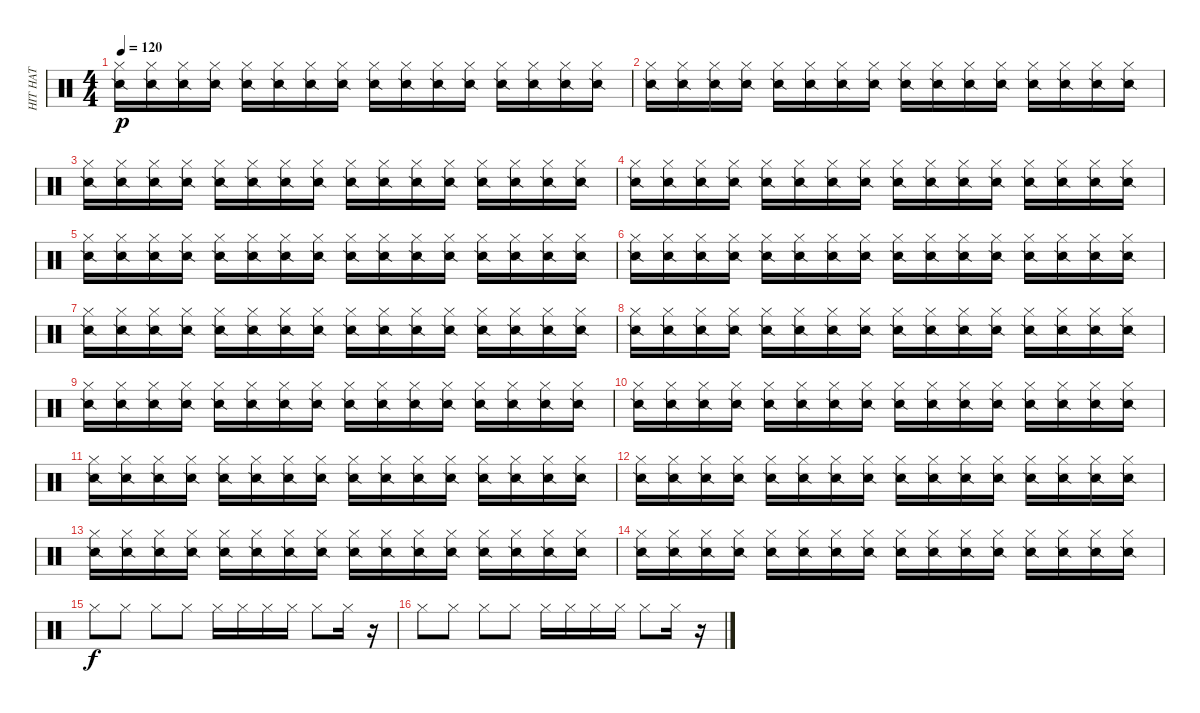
\track ("HIT HAT" "HIT HAT") {instrument percussion}
\staff {score}
\articulation defaults
\ts (4 4)
\tempo 120
\clef neutral
\ks c
("Hi-Hat (closed)" "Snare (side stick) 2").16{dy p} ("Hi-Hat (closed)" "Snare (side stick) 2").16 ("Hi-Hat (closed)" "Snare (side stick) 2").16 ("Hi-Hat (closed)" "Snare (side stick) 2").16 ("Hi-Hat (closed)" "Snare (side stick) 2").16 ("Hi-Hat (closed)" "Snare (side stick) 2").16 ("Hi-Hat (closed)" "Snare (side stick) 2").16 ("Hi-Hat (closed)" "Snare (side stick) 2").16 ("Hi-Hat (closed)" "Snare (side stick) 2").16 ("Hi-Hat (closed)" "Snare (side stick) 2").16 ("Hi-Hat (closed)" "Snare (side stick) 2").16 ("Hi-Hat (closed)" "Snare (side stick) 2").16 ("Hi-Hat (closed)" "Snare (side stick) 2").16 ("Hi-Hat (closed)" "Snare (side stick) 2").16 ("Hi-Hat (closed)" "Snare (side stick) 2").16 ("Hi-Hat (closed)" "Snare (side stick) 2").16 |
("Hi-Hat (closed)" "Snare (side stick) 2").16 ("Hi-Hat (closed)" "Snare (side stick) 2").16 ("Hi-Hat (closed)" "Snare (side stick) 2").16 ("Hi-Hat (closed)" "Snare (side stick) 2").16 ("Hi-Hat (closed)" "Snare (side stick) 2").16 ("Hi-Hat (closed)" "Snare (side stick) 2").16 ("Hi-Hat (closed)" "Snare (side stick) 2").16 ("Hi-Hat (closed)" "Snare (side stick) 2").16 ("Hi-Hat (closed)" "Snare (side stick) 2").16 ("Hi-Hat (closed)" "Snare (side stick) 2").16 ("Hi-Hat (closed)" "Snare (side stick) 2").16 ("Hi-Hat (closed)" "Snare (side stick) 2").16 ("Hi-Hat (closed)" "Snare (side stick) 2").16 ("Hi-Hat (closed)" "Snare (side stick) 2").16 ("Hi-Hat (closed)" "Snare (side stick) 2").16 ("Hi-Hat (closed)" "Snare (side stick) 2").16 |
("Hi-Hat (closed)" "Snare (side stick) 2").16 ("Hi-Hat (closed)" "Snare (side stick) 2").16 ("Hi-Hat (closed)" "Snare (side stick) 2").16 ("Hi-Hat (closed)" "Snare (side stick) 2").16 ("Hi-Hat (closed)" "Snare (side stick) 2").16 ("Hi-Hat (closed)" "Snare (side stick) 2").16 ("Hi-Hat (closed)" "Snare (side stick) 2").16 ("Hi-Hat (closed)" "Snare (side stick) 2").16 ("Hi-Hat (closed)" "Snare (side stick) 2").16 ("Hi-Hat (closed)" "Snare (side stick) 2").16 ("Hi-Hat (closed)" "Snare (side stick) 2").16 ("Hi-Hat (closed)" "Snare (side stick) 2").16 ("Hi-Hat (closed)" "Snare (side stick) 2").16 ("Hi-Hat (closed)" "Snare (side stick) 2").16 ("Hi-Hat (closed)" "Snare (side stick) 2").16 ("Hi-Hat (closed)" "Snare (side stick) 2").16 |
("Hi-Hat (closed)" "Snare (side stick) 2").16 ("Hi-Hat (closed)" "Snare (side stick) 2").16 ("Hi-Hat (closed)" "Snare (side stick) 2").16 ("Hi-Hat (closed)" "Snare (side stick) 2").16 ("Hi-Hat (closed)" "Snare (side stick) 2").16 ("Hi-Hat (closed)" "Snare (side stick) 2").16 ("Hi-Hat (closed)" "Snare (side stick) 2").16 ("Hi-Hat (closed)" "Snare (side stick) 2").16 ("Hi-Hat (closed)" "Snare (side stick) 2").16 ("Hi-Hat (closed)" "Snare (side stick) 2").16 ("Hi-Hat (closed)" "Snare (side stick) 2").16 ("Hi-Hat (closed)" "Snare (side stick) 2").16 ("Hi-Hat (closed)" "Snare (side stick) 2").16 ("Hi-Hat (closed)" "Snare (side stick) 2").16 ("Hi-Hat (closed)" "Snare (side stick) 2").16 ("Hi-Hat (closed)" "Snare (side stick) 2").16 |
("Hi-Hat (closed)" "Snare (side stick) 2").16 ("Hi-Hat (closed)" "Snare (side stick) 2").16 ("Hi-Hat (closed)" "Snare (side stick) 2").16 ("Hi-Hat (closed)" "Snare (side stick) 2").16 ("Hi-Hat (closed)" "Snare (side stick) 2").16 ("Hi-Hat (closed)" "Snare (side stick) 2").16 ("Hi-Hat (closed)" "Snare (side stick) 2").16 ("Hi-Hat (closed)" "Snare (side stick) 2").16 ("Hi-Hat (closed)" "Snare (side stick) 2").16 ("Hi-Hat (closed)" "Snare (side stick) 2").16 ("Hi-Hat (closed)" "Snare (side stick) 2").16 ("Hi-Hat (closed)" "Snare (side stick) 2").16 ("Hi-Hat (closed)" "Snare (side stick) 2").16 ("Hi-Hat (closed)" "Snare (side stick) 2").16 ("Hi-Hat (closed)" "Snare (side stick) 2").16 ("Hi-Hat (closed)" "Snare (side stick) 2").16 |
("Hi-Hat (closed)" "Snare (side stick) 2").16 ("Hi-Hat (closed)" "Snare (side stick) 2").16 ("Hi-Hat (closed)" "Snare (side stick) 2").16 ("Hi-Hat (closed)" "Snare (side stick) 2").16 ("Hi-Hat (closed)" "Snare (side stick) 2").16 ("Hi-Hat (closed)" "Snare (side stick) 2").16 ("Hi-Hat (closed)" "Snare (side stick) 2").16 ("Hi-Hat (closed)" "Snare (side stick) 2").16 ("Hi-Hat (closed)" "Snare (side stick) 2").16 ("Hi-Hat (closed)" "Snare (side stick) 2").16 ("Hi-Hat (closed)" "Snare (side stick) 2").16 ("Hi-Hat (closed)" "Snare (side stick) 2").16 ("Hi-Hat (closed)" "Snare (side stick) 2").16 ("Hi-Hat (closed)" "Snare (side stick) 2").16 ("Hi-Hat (closed)" "Snare (side stick) 2").16 ("Hi-Hat (closed)" "Snare (side stick) 2").16 |
("Hi-Hat (closed)" "Snare (side stick) 2").16 ("Hi-Hat (closed)" "Snare (side stick) 2").16 ("Hi-Hat (closed)" "Snare (side stick) 2").16 ("Hi-Hat (closed)" "Snare (side stick) 2").16 ("Hi-Hat (closed)" "Snare (side stick) 2").16 ("Hi-Hat (closed)" "Snare (side stick) 2").16 ("Hi-Hat (closed)" "Snare (side stick) 2").16 ("Hi-Hat (closed)" "Snare (side stick) 2").16 ("Hi-Hat (closed)" "Snare (side stick) 2").16 ("Hi-Hat (closed)" "Snare (side stick) 2").16 ("Hi-Hat (closed)" "Snare (side stick) 2").16 ("Hi-Hat (closed)" "Snare (side stick) 2").16 ("Hi-Hat (closed)" "Snare (side stick) 2").16 ("Hi-Hat (closed)" "Snare (side stick) 2").16 ("Hi-Hat (closed)" "Snare (side stick) 2").16 ("Hi-Hat (closed)" "Snare (side stick) 2").16 |
("Hi-Hat (closed)" "Snare (side stick) 2").16 ("Hi-Hat (closed)" "Snare (side stick) 2").16 ("Hi-Hat (closed)" "Snare (side stick) 2").16 ("Hi-Hat (closed)" "Snare (side stick) 2").16 ("Hi-Hat (closed)" "Snare (side stick) 2").16 ("Hi-Hat (closed)" "Snare (side stick) 2").16 ("Hi-Hat (closed)" "Snare (side stick) 2").16 ("Hi-Hat (closed)" "Snare (side stick) 2").16 ("Hi-Hat (closed)" "Snare (side stick) 2").16 ("Hi-Hat (closed)" "Snare (side stick) 2").16 ("Hi-Hat (closed)" "Snare (side stick) 2").16 ("Hi-Hat (closed)" "Snare (side stick) 2").16 ("Hi-Hat (closed)" "Snare (side stick) 2").16 ("Hi-Hat (closed)" "Snare (side stick) 2").16 ("Hi-Hat (closed)" "Snare (side stick) 2").16 ("Hi-Hat (closed)" "Snare (side stick) 2").16 |
("Hi-Hat (closed)" "Snare (side stick) 2").16 ("Hi-Hat (closed)" "Snare (side stick) 2").16 ("Hi-Hat (closed)" "Snare (side stick) 2").16 ("Hi-Hat (closed)" "Snare (side stick) 2").16 ("Hi-Hat (closed)" "Snare (side stick) 2").16 ("Hi-Hat (closed)" "Snare (side stick) 2").16 ("Hi-Hat (closed)" "Snare (side stick) 2").16 ("Hi-Hat (closed)" "Snare (side stick) 2").16 ("Hi-Hat (closed)" "Snare (side stick) 2").16 ("Hi-Hat (closed)" "Snare (side stick) 2").16 ("Hi-Hat (closed)" "Snare (side stick) 2").16 ("Hi-Hat (closed)" "Snare (side stick) 2").16 ("Hi-Hat (closed)" "Snare (side stick) 2").16 ("Hi-Hat (closed)" "Snare (side stick) 2").16 ("Hi-Hat (closed)" "Snare (side stick) 2").16 ("Hi-Hat (closed)" "Snare (side stick) 2").16 |
("Hi-Hat (closed)" "Snare (side stick) 2").16 ("Hi-Hat (closed)" "Snare (side stick) 2").16 ("Hi-Hat (closed)" "Snare (side stick) 2").16 ("Hi-Hat (closed)" "Snare (side stick) 2").16 ("Hi-Hat (closed)" "Snare (side stick) 2").16 ("Hi-Hat (closed)" "Snare (side stick) 2").16 ("Hi-Hat (closed)" "Snare (side stick) 2").16 ("Hi-Hat (closed)" "Snare (side stick) 2").16 ("Hi-Hat (closed)" "Snare (side stick) 2").16 ("Hi-Hat (closed)" "Snare (side stick) 2").16 ("Hi-Hat (closed)" "Snare (side stick) 2").16 ("Hi-Hat (closed)" "Snare (side stick) 2").16 ("Hi-Hat (closed)" "Snare (side stick) 2").16 ("Hi-Hat (closed)" "Snare (side stick) 2").16 ("Hi-Hat (closed)" "Snare (side stick) 2").16 ("Hi-Hat (closed)" "Snare (side stick) 2").16 |
("Hi-Hat (closed)" "Snare (side stick) 2").16 ("Hi-Hat (closed)" "Snare (side stick) 2").16 ("Hi-Hat (closed)" "Snare (side stick) 2").16 ("Hi-Hat (closed)" "Snare (side stick) 2").16 ("Hi-Hat (closed)" "Snare (side stick) 2").16 ("Hi-Hat (closed)" "Snare (side stick) 2").16 ("Hi-Hat (closed)" "Snare (side stick) 2").16 ("Hi-Hat (closed)" "Snare (side stick) 2").16 ("Hi-Hat (closed)" "Snare (side stick) 2").16 ("Hi-Hat (closed)" "Snare (side stick) 2").16 ("Hi-Hat (closed)" "Snare (side stick) 2").16 ("Hi-Hat (closed)" "Snare (side stick) 2").16 ("Hi-Hat (closed)" "Snare (side stick) 2").16 ("Hi-Hat (closed)" "Snare (side stick) 2").16 ("Hi-Hat (closed)" "Snare (side stick) 2").16 ("Hi-Hat (closed)" "Snare (side stick) 2").16 |
("Hi-Hat (closed)" "Snare (side stick) 2").16 ("Hi-Hat (closed)" "Snare (side stick) 2").16 ("Hi-Hat (closed)" "Snare (side stick) 2").16 ("Hi-Hat (closed)" "Snare (side stick) 2").16 ("Hi-Hat (closed)" "Snare (side stick) 2").16 ("Hi-Hat (closed)" "Snare (side stick) 2").16 ("Hi-Hat (closed)" "Snare (side stick) 2").16 ("Hi-Hat (closed)" "Snare (side stick) 2").16 ("Hi-Hat (closed)" "Snare (side stick) 2").16 ("Hi-Hat (closed)" "Snare (side stick) 2").16 ("Hi-Hat (closed)" "Snare (side stick) 2").16 ("Hi-Hat (closed)" "Snare (side stick) 2").16 ("Hi-Hat (closed)" "Snare (side stick) 2").16 ("Hi-Hat (closed)" "Snare (side stick) 2").16 ("Hi-Hat (closed)" "Snare (side stick) 2").16 ("Hi-Hat (closed)" "Snare (side stick) 2").16 |
("Hi-Hat (closed)" "Snare (side stick) 2").16 ("Hi-Hat (closed)" "Snare (side stick) 2").16 ("Hi-Hat (closed)" "Snare (side stick) 2").16 ("Hi-Hat (closed)" "Snare (side stick) 2").16 ("Hi-Hat (closed)" "Snare (side stick) 2").16 ("Hi-Hat (closed)" "Snare (side stick) 2").16 ("Hi-Hat (closed)" "Snare (side stick) 2").16 ("Hi-Hat (closed)" "Snare (side stick) 2").16 ("Hi-Hat (closed)" "Snare (side stick) 2").16 ("Hi-Hat (closed)" "Snare (side stick) 2").16 ("Hi-Hat (closed)" "Snare (side stick) 2").16 ("Hi-Hat (closed)" "Snare (side stick) 2").16 ("Hi-Hat (closed)" "Snare (side stick) 2").16 ("Hi-Hat (closed)" "Snare (side stick) 2").16 ("Hi-Hat (closed)" "Snare (side stick) 2").16 ("Hi-Hat (closed)" "Snare (side stick) 2").16 |
("Hi-Hat (closed)" "Snare (side stick) 2").16 ("Hi-Hat (closed)" "Snare (side stick) 2").16 ("Hi-Hat (closed)" "Snare (side stick) 2").16 ("Hi-Hat (closed)" "Snare (side stick) 2").16 ("Hi-Hat (closed)" "Snare (side stick) 2").16 ("Hi-Hat (closed)" "Snare (side stick) 2").16 ("Hi-Hat (closed)" "Snare (side stick) 2").16 ("Hi-Hat (closed)" "Snare (side stick) 2").16 ("Hi-Hat (closed)" "Snare (side stick) 2").16 ("Hi-Hat (closed)" "Snare (side stick) 2").16 ("Hi-Hat (closed)" "Snare (side stick) 2").16 ("Hi-Hat (closed)" "Snare (side stick) 2").16 ("Hi-Hat (closed)" "Snare (side stick) 2").16 ("Hi-Hat (closed)" "Snare (side stick) 2").16 ("Hi-Hat (closed)" "Snare (side stick) 2").16 ("Hi-Hat (closed)" "Snare (side stick) 2").16 |
"Hi-Hat (closed)".8{dy f} "Hi-Hat (closed)".8 "Hi-Hat (closed)".8 "Hi-Hat (closed)".8 "Hi-Hat (closed)".16 "Hi-Hat (closed)".16 "Hi-Hat (closed)".16 "Hi-Hat (closed)".16 "Hi-Hat (closed)".8 "Hi-Hat (closed)".16 r.16 |
"Hi-Hat (closed)".8 "Hi-Hat (closed)".8 "Hi-Hat (closed)".8 "Hi-Hat (closed)".8 "Hi-Hat (closed)".16 "Hi-Hat (closed)".16 "Hi-Hat (closed)".16 "Hi-Hat (closed)".16 "Hi-Hat (closed)".8 "Hi-Hat (closed)".16 r.16
